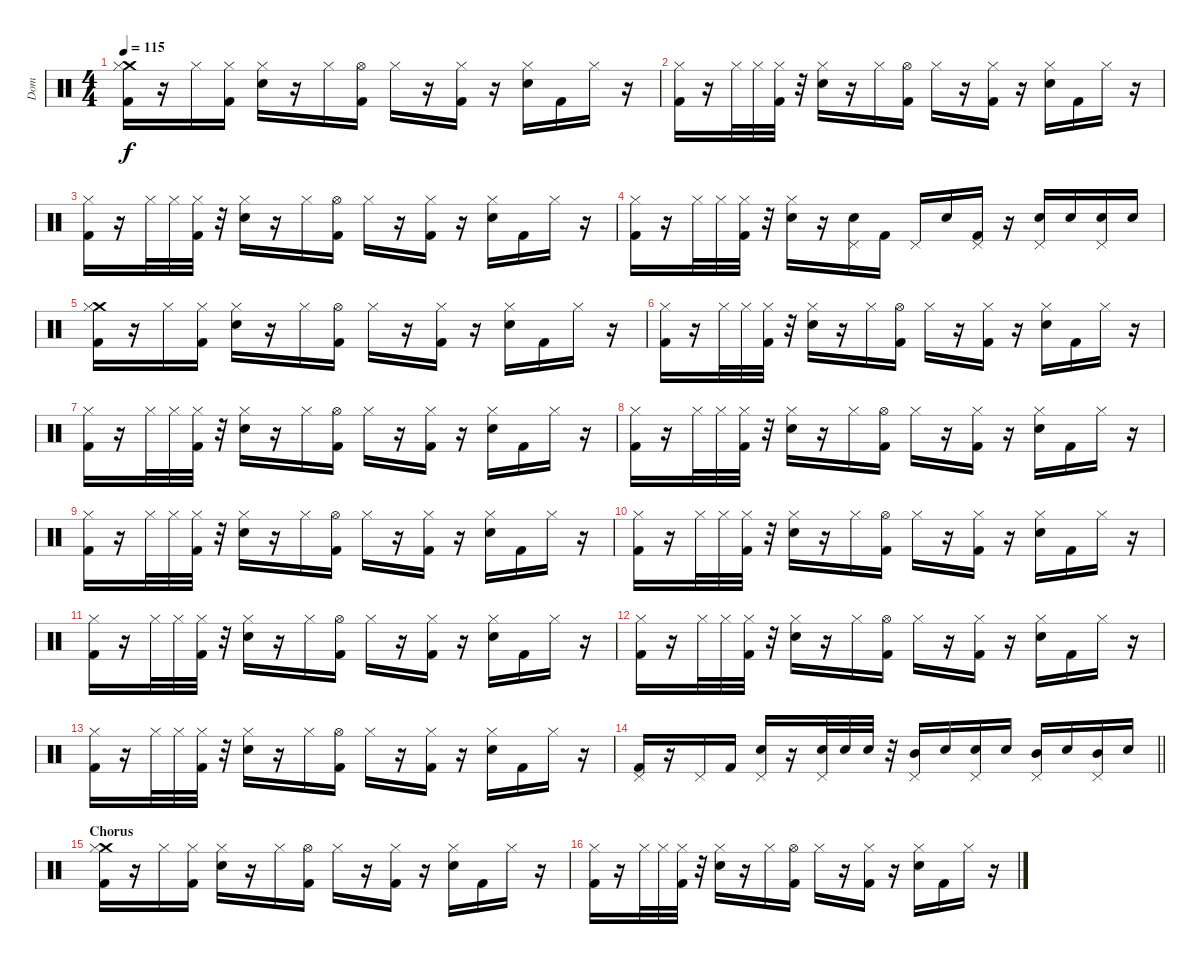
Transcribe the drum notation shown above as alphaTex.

\track ("Dom" "Dom") {instrument percussion}
\staff {score}
\articulation defaults
\ts (4 4)
\tempo 115
\clef neutral
\ks c
("Crash medium (hit)" "Hi-Hat (closed)" "Kick (hit) 2").16{dy f} r.16 "Hi-Hat (closed)".16 ("Hi-Hat (closed)" "Kick (hit) 2").16 ("Snare (hit) 2" "Hi-Hat (closed)").16 r.16 "Hi-Hat (closed)".16 ("Hi-Hat (open)" "Kick (hit) 2").16 "Hi-Hat (closed)".16 r.16 ("Hi-Hat (closed)" "Kick (hit) 2").16 r.16 ("Snare (hit) 2" "Hi-Hat (closed)").16 "Kick (hit) 2".16 "Hi-Hat (closed)".16 r.16 |
("Hi-Hat (closed)" "Kick (hit) 2").16 r.16 "Hi-Hat (closed)".32 "Hi-Hat (closed)".32 ("Hi-Hat (closed)" "Kick (hit) 2").32 r.32 ("Snare (hit) 2" "Hi-Hat (closed)").16 r.16 "Hi-Hat (closed)".16 ("Hi-Hat (open)" "Kick (hit) 2").16 "Hi-Hat (closed)".16 r.16 ("Hi-Hat (closed)" "Kick (hit) 2").16 r.16 ("Snare (hit) 2" "Hi-Hat (closed)").16 "Kick (hit) 2".16 "Hi-Hat (closed)".16 r.16 |
("Hi-Hat (closed)" "Kick (hit) 2").16 r.16 "Hi-Hat (closed)".32 "Hi-Hat (closed)".32 ("Hi-Hat (closed)" "Kick (hit) 2").32 r.32 ("Snare (hit) 2" "Hi-Hat (closed)").16 r.16 "Hi-Hat (closed)".16 ("Hi-Hat (open)" "Kick (hit) 2").16 "Hi-Hat (closed)".16 r.16 ("Hi-Hat (closed)" "Kick (hit) 2").16 r.16 ("Snare (hit) 2" "Hi-Hat (closed)").16 "Kick (hit) 2".16 "Hi-Hat (closed)".16 r.16 |
("Hi-Hat (closed)" "Kick (hit) 2").16 r.16 "Hi-Hat (closed)".32 "Hi-Hat (closed)".32 ("Hi-Hat (closed)" "Kick (hit) 2").32 r.32 ("Snare (hit) 2" "Hi-Hat (closed)").16 r.16 ("Snare (hit) 2" "Pedal Hi-Hat (hit)").16 "Kick (hit) 2".16 "Pedal Hi-Hat (hit)".16 "Snare (hit) 2".16 ("Pedal Hi-Hat (hit)" "Kick (hit) 2").16 r.16 ("Snare (hit) 2" "Pedal Hi-Hat (hit)").16 "Snare (hit) 2".16 ("Snare (hit) 2" "Pedal Hi-Hat (hit)").16 "Snare (hit) 2".16 |
("Crash medium (hit)" "Hi-Hat (closed)" "Kick (hit) 2").16 r.16 "Hi-Hat (closed)".16 ("Hi-Hat (closed)" "Kick (hit) 2").16 ("Snare (hit) 2" "Hi-Hat (closed)").16 r.16 "Hi-Hat (closed)".16 ("Hi-Hat (open)" "Kick (hit) 2").16 "Hi-Hat (closed)".16 r.16 ("Hi-Hat (closed)" "Kick (hit) 2").16 r.16 ("Snare (hit) 2" "Hi-Hat (closed)").16 "Kick (hit) 2".16 "Hi-Hat (closed)".16 r.16 |
("Hi-Hat (closed)" "Kick (hit) 2").16 r.16 "Hi-Hat (closed)".32 "Hi-Hat (closed)".32 ("Hi-Hat (closed)" "Kick (hit) 2").32 r.32 ("Snare (hit) 2" "Hi-Hat (closed)").16 r.16 "Hi-Hat (closed)".16 ("Hi-Hat (open)" "Kick (hit) 2").16 "Hi-Hat (closed)".16 r.16 ("Hi-Hat (closed)" "Kick (hit) 2").16 r.16 ("Snare (hit) 2" "Hi-Hat (closed)").16 "Kick (hit) 2".16 "Hi-Hat (closed)".16 r.16 |
("Hi-Hat (closed)" "Kick (hit) 2").16 r.16 "Hi-Hat (closed)".32 "Hi-Hat (closed)".32 ("Hi-Hat (closed)" "Kick (hit) 2").32 r.32 ("Snare (hit) 2" "Hi-Hat (closed)").16 r.16 "Hi-Hat (closed)".16 ("Hi-Hat (open)" "Kick (hit) 2").16 "Hi-Hat (closed)".16 r.16 ("Hi-Hat (closed)" "Kick (hit) 2").16 r.16 ("Snare (hit) 2" "Hi-Hat (closed)").16 "Kick (hit) 2".16 "Hi-Hat (closed)".16 r.16 |
("Hi-Hat (closed)" "Kick (hit) 2").16 r.16 "Hi-Hat (closed)".32 "Hi-Hat (closed)".32 ("Hi-Hat (closed)" "Kick (hit) 2").32 r.32 ("Snare (hit) 2" "Hi-Hat (closed)").16 r.16 "Hi-Hat (closed)".16 ("Hi-Hat (open)" "Kick (hit) 2").16 "Hi-Hat (closed)".16 r.16 ("Hi-Hat (closed)" "Kick (hit) 2").16 r.16 ("Snare (hit) 2" "Hi-Hat (closed)").16 "Kick (hit) 2".16 "Hi-Hat (closed)".16 r.16 |
("Hi-Hat (closed)" "Kick (hit) 2").16 r.16 "Hi-Hat (closed)".32 "Hi-Hat (closed)".32 ("Hi-Hat (closed)" "Kick (hit) 2").32 r.32 ("Snare (hit) 2" "Hi-Hat (closed)").16 r.16 "Hi-Hat (closed)".16 ("Hi-Hat (open)" "Kick (hit) 2").16 "Hi-Hat (closed)".16 r.16 ("Hi-Hat (closed)" "Kick (hit) 2").16 r.16 ("Snare (hit) 2" "Hi-Hat (closed)").16 "Kick (hit) 2".16 "Hi-Hat (closed)".16 r.16 |
("Hi-Hat (closed)" "Kick (hit) 2").16 r.16 "Hi-Hat (closed)".32 "Hi-Hat (closed)".32 ("Hi-Hat (closed)" "Kick (hit) 2").32 r.32 ("Snare (hit) 2" "Hi-Hat (closed)").16 r.16 "Hi-Hat (closed)".16 ("Hi-Hat (open)" "Kick (hit) 2").16 "Hi-Hat (closed)".16 r.16 ("Hi-Hat (closed)" "Kick (hit) 2").16 r.16 ("Snare (hit) 2" "Hi-Hat (closed)").16 "Kick (hit) 2".16 "Hi-Hat (closed)".16 r.16 |
("Hi-Hat (closed)" "Kick (hit) 2").16 r.16 "Hi-Hat (closed)".32 "Hi-Hat (closed)".32 ("Hi-Hat (closed)" "Kick (hit) 2").32 r.32 ("Snare (hit) 2" "Hi-Hat (closed)").16 r.16 "Hi-Hat (closed)".16 ("Hi-Hat (open)" "Kick (hit) 2").16 "Hi-Hat (closed)".16 r.16 ("Hi-Hat (closed)" "Kick (hit) 2").16 r.16 ("Snare (hit) 2" "Hi-Hat (closed)").16 "Kick (hit) 2".16 "Hi-Hat (closed)".16 r.16 |
("Hi-Hat (closed)" "Kick (hit) 2").16 r.16 "Hi-Hat (closed)".32 "Hi-Hat (closed)".32 ("Hi-Hat (closed)" "Kick (hit) 2").32 r.32 ("Snare (hit) 2" "Hi-Hat (closed)").16 r.16 "Hi-Hat (closed)".16 ("Hi-Hat (open)" "Kick (hit) 2").16 "Hi-Hat (closed)".16 r.16 ("Hi-Hat (closed)" "Kick (hit) 2").16 r.16 ("Snare (hit) 2" "Hi-Hat (closed)").16 "Kick (hit) 2".16 "Hi-Hat (closed)".16 r.16 |
("Hi-Hat (closed)" "Kick (hit) 2").16 r.16 "Hi-Hat (closed)".32 "Hi-Hat (closed)".32 ("Hi-Hat (closed)" "Kick (hit) 2").32 r.32 ("Snare (hit) 2" "Hi-Hat (closed)").16 r.16 "Hi-Hat (closed)".16 ("Hi-Hat (open)" "Kick (hit) 2").16 "Hi-Hat (closed)".16 r.16 ("Hi-Hat (closed)" "Kick (hit) 2").16 r.16 ("Snare (hit) 2" "Hi-Hat (closed)").16 "Kick (hit) 2".16 "Hi-Hat (closed)".16 r.16 |
\barLineRight lightlight
("Pedal Hi-Hat (hit)" "Kick (hit) 2").16 r.16 "Pedal Hi-Hat (hit)".16 "Kick (hit) 2".16 ("Snare (hit) 2" "Pedal Hi-Hat (hit)").16 r.16 ("Snare (hit) 2" "Pedal Hi-Hat (hit)").32 "Snare (hit) 2".32 "Snare (hit) 2".32 r.32 ("Mid Tom (hit)" "Pedal Hi-Hat (hit)").16 "Snare (hit) 2".16 ("Snare (hit) 2" "Pedal Hi-Hat (hit)").16 "Snare (hit) 2".16 ("Mid Tom (hit)" "Pedal Hi-Hat (hit)").16 "Snare (hit) 2".16 ("Mid Tom (hit)" "Pedal Hi-Hat (hit)").16 "Snare (hit) 2".16 |
\section ("" "Chorus")
("Crash medium (hit)" "Hi-Hat (closed)" "Kick (hit) 2").16 r.16 "Hi-Hat (closed)".16 ("Hi-Hat (closed)" "Kick (hit) 2").16 ("Snare (hit) 2" "Hi-Hat (closed)").16 r.16 "Hi-Hat (closed)".16 ("Hi-Hat (open)" "Kick (hit) 2").16 "Hi-Hat (closed)".16 r.16 ("Hi-Hat (closed)" "Kick (hit) 2").16 r.16 ("Snare (hit) 2" "Hi-Hat (closed)").16 "Kick (hit) 2".16 "Hi-Hat (closed)".16 r.16 |
("Hi-Hat (closed)" "Kick (hit) 2").16 r.16 "Hi-Hat (closed)".32 "Hi-Hat (closed)".32 ("Hi-Hat (closed)" "Kick (hit) 2").32 r.32 ("Snare (hit) 2" "Hi-Hat (closed)").16 r.16 "Hi-Hat (closed)".16 ("Hi-Hat (open)" "Kick (hit) 2").16 "Hi-Hat (closed)".16 r.16 ("Hi-Hat (closed)" "Kick (hit) 2").16 r.16 ("Snare (hit) 2" "Hi-Hat (closed)").16 "Kick (hit) 2".16 "Hi-Hat (closed)".16 r.16
